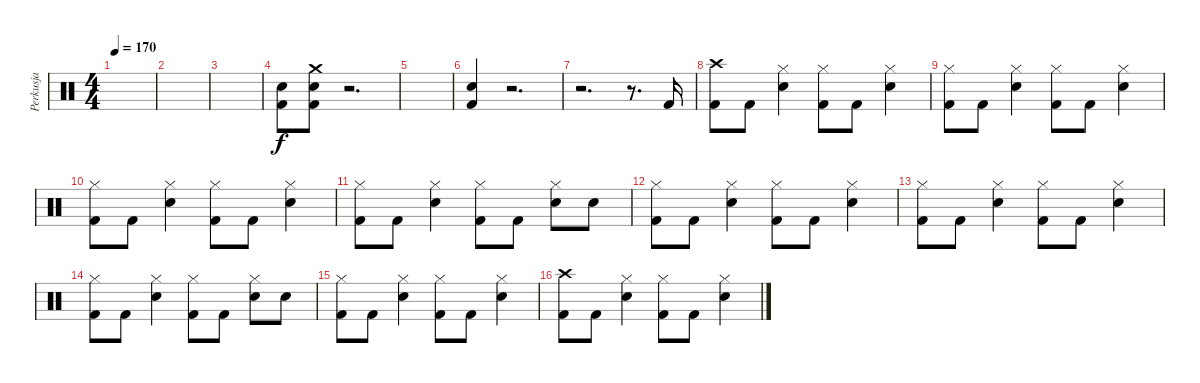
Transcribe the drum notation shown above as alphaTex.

\track ("Perkusja" "Perkusja") {instrument percussion}
\staff {score}
\articulation defaults
\ts (4 4)
\tempo 170
\clef neutral
\ks c
|
|
|
("Electric Snare (hit)" "Kick (hit) 2").8 ("Crash medium (hit)" "Electric Snare (hit)" "Kick (hit) 2").8 r.2{d} |
|
("Electric Snare (hit)" "Kick (hit) 2").4 r.2{d} |
r.2{d} r.8{d} "Kick (hit) 2".16 |
("Crash high (hit)" "Kick (hit) 2").8 "Kick (hit) 2".8 ("Hi-Hat (closed)" "Electric Snare (hit)").4 ("Hi-Hat (closed)" "Kick (hit) 2").8 "Kick (hit) 2".8 ("Hi-Hat (closed)" "Electric Snare (hit)").4 |
("Hi-Hat (closed)" "Kick (hit) 2").8 "Kick (hit) 2".8 ("Hi-Hat (closed)" "Electric Snare (hit)").4 ("Hi-Hat (closed)" "Kick (hit) 2").8 "Kick (hit) 2".8 ("Hi-Hat (closed)" "Electric Snare (hit)").4 |
("Hi-Hat (closed)" "Kick (hit) 2").8 "Kick (hit) 2".8 ("Hi-Hat (closed)" "Electric Snare (hit)").4 ("Hi-Hat (closed)" "Kick (hit) 2").8 "Kick (hit) 2".8 ("Hi-Hat (closed)" "Electric Snare (hit)").4 |
("Hi-Hat (closed)" "Kick (hit) 2").8 "Kick (hit) 2".8 ("Hi-Hat (closed)" "Electric Snare (hit)").4 ("Hi-Hat (closed)" "Kick (hit) 2").8 "Kick (hit) 2".8 ("Hi-Hat (closed)" "Electric Snare (hit)").8 "Electric Snare (hit)".8 |
("Hi-Hat (closed)" "Kick (hit) 2").8 "Kick (hit) 2".8 ("Hi-Hat (closed)" "Electric Snare (hit)").4 ("Hi-Hat (closed)" "Kick (hit) 2").8 "Kick (hit) 2".8 ("Hi-Hat (closed)" "Electric Snare (hit)").4 |
("Hi-Hat (closed)" "Kick (hit) 2").8 "Kick (hit) 2".8 ("Hi-Hat (closed)" "Electric Snare (hit)").4 ("Hi-Hat (closed)" "Kick (hit) 2").8 "Kick (hit) 2".8 ("Hi-Hat (closed)" "Electric Snare (hit)").4 |
("Hi-Hat (closed)" "Kick (hit) 2").8 "Kick (hit) 2".8 ("Hi-Hat (closed)" "Electric Snare (hit)").4 ("Hi-Hat (closed)" "Kick (hit) 2").8 "Kick (hit) 2".8 ("Hi-Hat (closed)" "Electric Snare (hit)").8 "Electric Snare (hit)".8 |
("Hi-Hat (closed)" "Kick (hit) 2").8 "Kick (hit) 2".8 ("Hi-Hat (closed)" "Electric Snare (hit)").4 ("Hi-Hat (closed)" "Kick (hit) 2").8 "Kick (hit) 2".8 ("Hi-Hat (closed)" "Electric Snare (hit)").4 |
("Crash high (hit)" "Kick (hit) 2").8 "Kick (hit) 2".8 ("Hi-Hat (closed)" "Electric Snare (hit)").4 ("Hi-Hat (closed)" "Kick (hit) 2").8 "Kick (hit) 2".8 ("Hi-Hat (closed)" "Electric Snare (hit)").4
